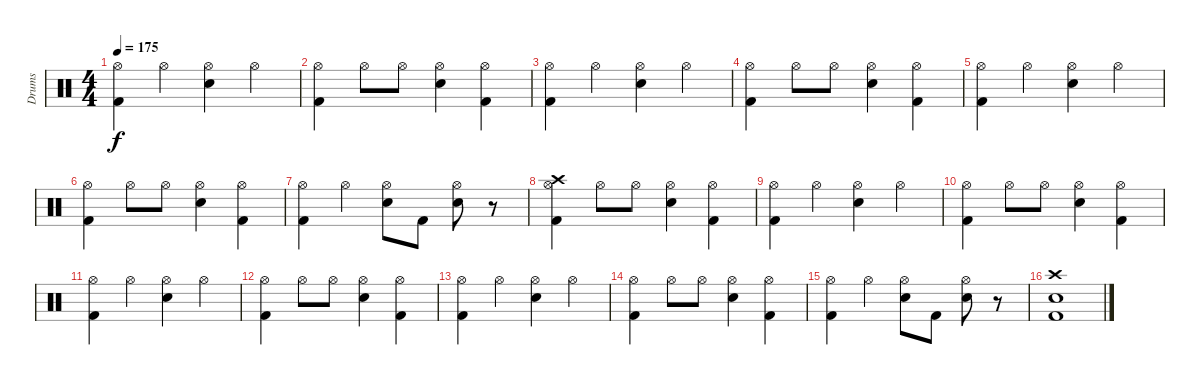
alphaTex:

\track ("Drums" "Drums") {instrument percussion}
\staff {score}
\articulation defaults
\ts (4 4)
\tempo 175
\clef neutral
\ks c
("Hi-Hat (open)" "Kick (hit) 2").4{dy f} "Hi-Hat (open)".4 ("Hi-Hat (open)" "Snare (hit) 2").4 "Hi-Hat (open)".4 |
("Hi-Hat (open)" "Kick (hit) 2").4 "Hi-Hat (open)".8 "Hi-Hat (open)".8 ("Hi-Hat (open)" "Snare (hit) 2").4 ("Hi-Hat (open)" "Kick (hit) 2").4 |
("Hi-Hat (open)" "Kick (hit) 2").4 "Hi-Hat (open)".4 ("Hi-Hat (open)" "Snare (hit) 2").4 "Hi-Hat (open)".4 |
("Hi-Hat (open)" "Kick (hit) 2").4 "Hi-Hat (open)".8 "Hi-Hat (open)".8 ("Hi-Hat (open)" "Snare (hit) 2").4 ("Hi-Hat (open)" "Kick (hit) 2").4 |
("Hi-Hat (open)" "Kick (hit) 2").4 "Hi-Hat (open)".4 ("Hi-Hat (open)" "Snare (hit) 2").4 "Hi-Hat (open)".4 |
("Hi-Hat (open)" "Kick (hit) 2").4 "Hi-Hat (open)".8 "Hi-Hat (open)".8 ("Hi-Hat (open)" "Snare (hit) 2").4 ("Hi-Hat (open)" "Kick (hit) 2").4 |
("Hi-Hat (open)" "Kick (hit) 2").4 "Hi-Hat (open)".4 ("Hi-Hat (open)" "Snare (hit) 2").8 "Kick (hit) 2".8 ("Hi-Hat (open)"{pm} "Snare (hit) 2"{pm}).8 r.8 |
("Hi-Hat (open)" "Crash high (hit)" "Kick (hit) 2").4 "Hi-Hat (open)".8 "Hi-Hat (open)".8 ("Hi-Hat (open)" "Snare (hit) 2").4 ("Hi-Hat (open)" "Kick (hit) 2").4 |
("Hi-Hat (open)" "Kick (hit) 2").4 "Hi-Hat (open)".4 ("Hi-Hat (open)" "Snare (hit) 2").4 "Hi-Hat (open)".4 |
("Hi-Hat (open)" "Kick (hit) 2").4 "Hi-Hat (open)".8 "Hi-Hat (open)".8 ("Hi-Hat (open)" "Snare (hit) 2").4 ("Hi-Hat (open)" "Kick (hit) 2").4 |
("Hi-Hat (open)" "Kick (hit) 2").4 "Hi-Hat (open)".4 ("Hi-Hat (open)" "Snare (hit) 2").4 "Hi-Hat (open)".4 |
("Hi-Hat (open)" "Kick (hit) 2").4 "Hi-Hat (open)".8 "Hi-Hat (open)".8 ("Hi-Hat (open)" "Snare (hit) 2").4 ("Hi-Hat (open)" "Kick (hit) 2").4 |
("Hi-Hat (open)" "Kick (hit) 2").4 "Hi-Hat (open)".4 ("Hi-Hat (open)" "Snare (hit) 2").4 "Hi-Hat (open)".4 |
("Hi-Hat (open)" "Kick (hit) 2").4 "Hi-Hat (open)".8 "Hi-Hat (open)".8 ("Hi-Hat (open)" "Snare (hit) 2").4 ("Hi-Hat (open)" "Kick (hit) 2").4 |
("Hi-Hat (open)" "Kick (hit) 2").4 "Hi-Hat (open)".4 ("Hi-Hat (open)" "Snare (hit) 2").8 "Kick (hit) 2".8 ("Hi-Hat (open)"{pm} "Snare (hit) 2"{pm}).8 r.8 |
("Crash high (hit)" "Snare (hit) 2" "Kick (hit) 2").1
